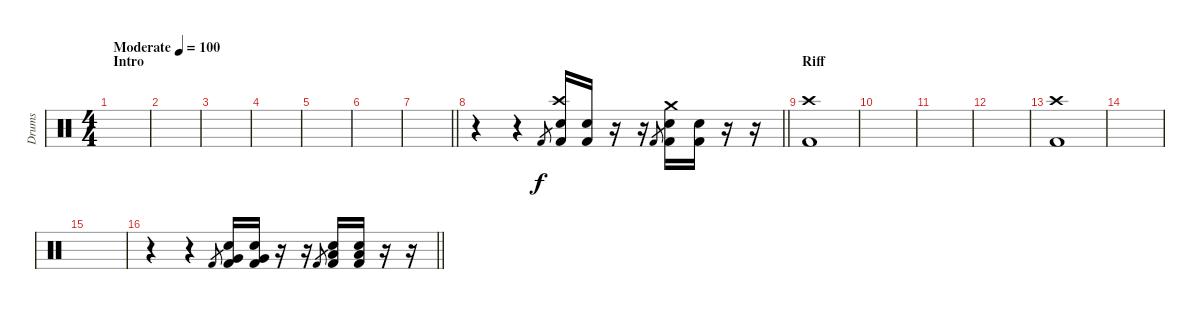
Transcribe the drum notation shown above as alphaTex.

\track ("Drums" "Drums") {instrument percussion}
\staff {score}
\articulation defaults
\ts (4 4)
\section ("" "Intro")
\tempo (100 "Moderate")
\clef neutral
\ks c
|
|
|
|
|
|
\barLineRight lightlight
|
\section ("" "")
\barLineRight lightlight
r.4 r.4 "Kick (hit) 2".8{gr} ("Crash high (hit)" "Snare (hit) 2" "Kick (hit) 2").16 ("Snare (hit) 2" "Kick (hit) 2").16 r.16 r.16 "Kick (hit) 2".8{gr} ("Crash medium (hit)" "Snare (hit) 2" "Kick (hit) 2").16 ("Snare (hit) 2" "Kick (hit) 2").16 r.16 r.16 |
\section ("" "Riff")
("Crash high (hit)" "Kick (hit) 2").1 |
|
|
|
("Crash high (hit)" "Kick (hit) 2").1 |
|
|
\barLineRight lightlight
r.4 r.4 "Kick (hit) 2".8{gr} ("Snare (hit) 2" "Very Low Tom (hit)" "Kick (hit) 2").16 ("Snare (hit) 2" "Very Low Tom (hit)" "Kick (hit) 2").16 r.16 r.16 "Kick (hit) 2".8{gr} ("Snare (hit) 2" "Low Floor Tom (hit)" "Kick (hit) 2").16 ("Snare (hit) 2" "Low Floor Tom (hit)" "Kick (hit) 2").16 r.16 r.16
